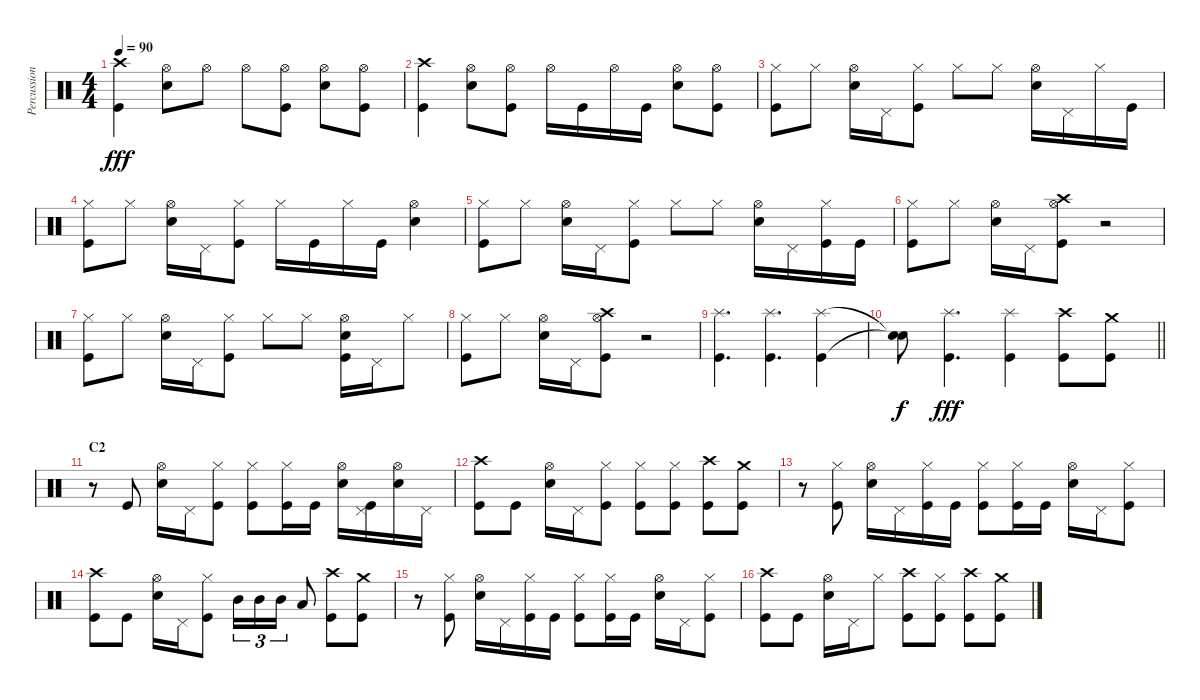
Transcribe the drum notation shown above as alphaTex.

\track ("Percussion" "Percussion") {instrument percussion}
\staff {score}
\articulation defaults
\ts (4 4)
\tempo 90
\clef neutral
\ks c
("Crash high (hit)" "Kick (hit)").4{dy fff} ("Hi-Hat (open)" "Electric Snare (hit)").8 "Hi-Hat (open)".8 "Hi-Hat (open)".8 ("Hi-Hat (open)" "Kick (hit)").8 ("Hi-Hat (open)" "Electric Snare (hit)").8 ("Hi-Hat (open)" "Kick (hit)").8 |
("Crash high (hit)" "Kick (hit)").4 ("Hi-Hat (open)" "Electric Snare (hit)").8 ("Hi-Hat (open)" "Kick (hit)").8 "Hi-Hat (open)".16 "Kick (hit)".16 "Hi-Hat (open)".16 "Kick (hit)".16 ("Hi-Hat (open)" "Electric Snare (hit)").8 ("Hi-Hat (open)" "Kick (hit)").8 |
("Hi-Hat (closed)" "Kick (hit)").8 "Hi-Hat (closed)".8 ("Hi-Hat (open)" "Electric Snare (hit)").16 "Pedal Hi-Hat (hit)".16 ("Hi-Hat (closed)" "Kick (hit)").8 "Hi-Hat (closed)".8 "Hi-Hat (closed)".8 ("Hi-Hat (open)" "Electric Snare (hit)").16 "Pedal Hi-Hat (hit)".16 "Hi-Hat (closed)".16 "Kick (hit)".16 |
("Hi-Hat (closed)" "Kick (hit)").8 "Hi-Hat (closed)".8 ("Hi-Hat (open)" "Electric Snare (hit)").16 "Pedal Hi-Hat (hit)".16 ("Hi-Hat (closed)" "Kick (hit)").8 "Hi-Hat (closed)".16 "Kick (hit)".16 "Hi-Hat (closed)".16 "Kick (hit)".16 ("Hi-Hat (open)" "Electric Snare (hit)").4 |
("Hi-Hat (closed)" "Kick (hit)").8 "Hi-Hat (closed)".8 ("Hi-Hat (open)" "Electric Snare (hit)").16 "Pedal Hi-Hat (hit)".16 ("Hi-Hat (closed)" "Kick (hit)").8 "Hi-Hat (closed)".8 "Hi-Hat (closed)".8 ("Hi-Hat (open)" "Electric Snare (hit)").16 "Pedal Hi-Hat (hit)".16 ("Hi-Hat (closed)" "Kick (hit)").16 "Kick (hit)".16 |
("Hi-Hat (closed)" "Kick (hit)").8 "Hi-Hat (closed)".8 ("Hi-Hat (open)" "Electric Snare (hit)").16 "Pedal Hi-Hat (hit)".16 ("Hi-Hat (open)" "Crash high (hit)" "Kick (hit)").8 r.2 |
("Hi-Hat (closed)" "Kick (hit)").8 "Hi-Hat (closed)".8 ("Hi-Hat (open)" "Electric Snare (hit)").16 "Pedal Hi-Hat (hit)".16 ("Hi-Hat (closed)" "Kick (hit)").8 "Hi-Hat (closed)".8 "Hi-Hat (closed)".8 ("Hi-Hat (open)" "Electric Snare (hit)" "Kick (hit)").16 "Pedal Hi-Hat (hit)".16 "Hi-Hat (closed)".8 |
("Hi-Hat (closed)" "Kick (hit)").8 "Hi-Hat (closed)".8 ("Hi-Hat (open)" "Electric Snare (hit)").16 "Pedal Hi-Hat (hit)".16 ("Hi-Hat (open)" "Crash high (hit)" "Kick (hit)").8 r.2 |
("Splash (hit)" "Kick (hit)").4{d} ("Splash (hit)" "Kick (hit)").4{d} ("Splash (hit)" "Kick (hit)").4 |
\barLineRight lightlight
("Snare (hit)"{t} "Snare (hit)"{t}).8{dy f} ("Splash (hit)" "Kick (hit)").4{d dy fff} ("Splash (hit)" "Kick (hit)").4 ("Crash high (hit)" "Kick (hit)").8 ("Crash medium (hit)" "Kick (hit)").8 |
\section ("" "C2")
r.8 "Kick (hit)".8 ("Hi-Hat (open)" "Electric Snare (hit)").16 "Pedal Hi-Hat (hit)".16 ("Hi-Hat (closed)" "Kick (hit)").8 ("Hi-Hat (closed)" "Kick (hit)").8 ("Hi-Hat (closed)" "Kick (hit)").16 "Kick (hit)".16 ("Hi-Hat (open)" "Electric Snare (hit)").16 ("Pedal Hi-Hat (hit)" "Kick (hit)").16 ("Hi-Hat (open)" "Electric Snare (hit)").16 "Pedal Hi-Hat (hit)".16 |
("Crash high (hit)" "Kick (hit)").8 "Kick (hit)".8 ("Hi-Hat (open)" "Electric Snare (hit)").16 "Pedal Hi-Hat (hit)".16 ("Hi-Hat (closed)" "Kick (hit)").8 ("Hi-Hat (closed)" "Kick (hit)").8 ("Hi-Hat (closed)" "Kick (hit)").8 ("Crash high (hit)" "Kick (hit)").8 ("Crash medium (hit)" "Kick (hit)").8 |
r.8 ("Hi-Hat (closed)" "Kick (hit)").8 ("Hi-Hat (open)" "Electric Snare (hit)").16 "Pedal Hi-Hat (hit)".16 ("Hi-Hat (closed)" "Kick (hit)").16 "Kick (hit)".16 ("Hi-Hat (closed)" "Kick (hit)").8 ("Hi-Hat (closed)" "Kick (hit)").16 "Kick (hit)".16 ("Hi-Hat (open)" "Electric Snare (hit)").16 "Pedal Hi-Hat (hit)".16 ("Hi-Hat (closed)" "Kick (hit)").8 |
("Crash high (hit)" "Kick (hit)").8 "Kick (hit)".8 ("Hi-Hat (open)" "Electric Snare (hit)").16 "Pedal Hi-Hat (hit)".16 ("Hi-Hat (closed)" "Kick (hit)").8 "Mid Tom (hit)".16{tu (3 2)} "Mid Tom (hit)".16{tu (3 2)} "Mid Tom (hit)".16{tu (3 2)} "Low Tom (hit)".8 ("Crash high (hit)" "Kick (hit)").8 ("Crash medium (hit)" "Kick (hit)").8 |
r.8 ("Hi-Hat (closed)" "Kick (hit)").8 ("Hi-Hat (open)" "Electric Snare (hit)").16 "Pedal Hi-Hat (hit)".16 ("Hi-Hat (closed)" "Kick (hit)").16 "Kick (hit)".16 ("Hi-Hat (closed)" "Kick (hit)").8 ("Hi-Hat (closed)" "Kick (hit)").16 "Kick (hit)".16 ("Hi-Hat (open)" "Electric Snare (hit)").16 "Pedal Hi-Hat (hit)".16 ("Hi-Hat (closed)" "Kick (hit)").8 |
("Crash high (hit)" "Kick (hit)").8 "Kick (hit)".8 ("Hi-Hat (open)" "Electric Snare (hit)").16 "Pedal Hi-Hat (hit)".16 "Hi-Hat (closed)".8 ("Crash high (hit)" "Kick (hit)").8 ("Hi-Hat (closed)" "Kick (hit)").8 ("Crash high (hit)" "Kick (hit)").8 ("Crash medium (hit)" "Kick (hit)").8
